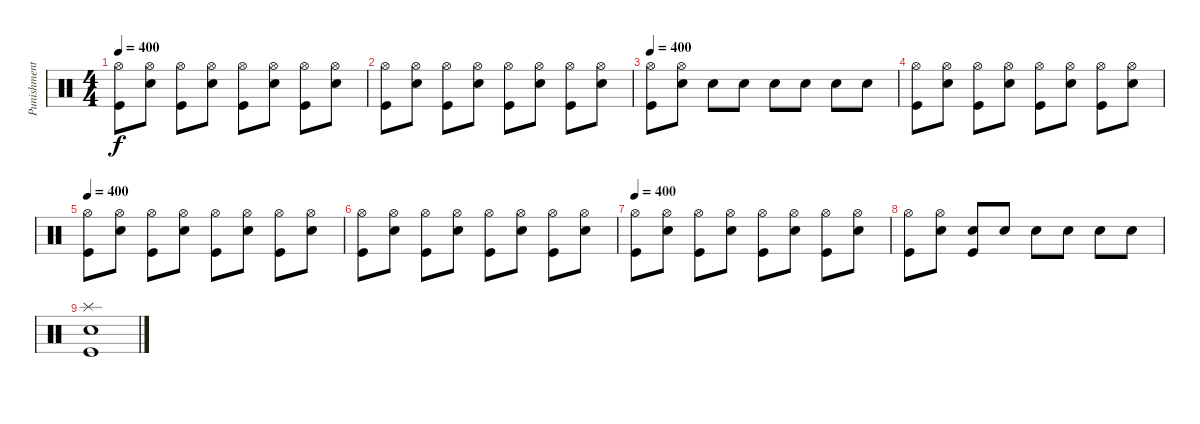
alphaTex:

\track ("Punishment" "Punishment") {instrument percussion}
\staff {score}
\articulation defaults
\ts (4 4)
\tempo 400
\clef neutral
\ks c
("Hi-Hat (open)" "Kick (hit)").8{dy f} ("Hi-Hat (open)" "Electric Snare (hit)").8 ("Hi-Hat (open)" "Kick (hit)").8 ("Hi-Hat (open)" "Electric Snare (hit)").8 ("Hi-Hat (open)" "Kick (hit)").8 ("Hi-Hat (open)" "Electric Snare (hit)").8 ("Hi-Hat (open)" "Kick (hit)").8 ("Hi-Hat (open)" "Electric Snare (hit)").8 |
("Hi-Hat (open)" "Kick (hit)").8 ("Hi-Hat (open)" "Electric Snare (hit)").8 ("Hi-Hat (open)" "Kick (hit)").8 ("Hi-Hat (open)" "Electric Snare (hit)").8 ("Hi-Hat (open)" "Kick (hit)").8 ("Hi-Hat (open)" "Electric Snare (hit)").8 ("Hi-Hat (open)" "Kick (hit)").8 ("Hi-Hat (open)" "Electric Snare (hit)").8 |
\tempo 400
("Hi-Hat (open)" "Kick (hit)").8 ("Hi-Hat (open)" "Electric Snare (hit)").8 "Electric Snare (hit)".8 "Electric Snare (hit)".8 "Electric Snare (hit)".8 "Electric Snare (hit)".8 "Electric Snare (hit)".8 "Electric Snare (hit)".8 |
("Hi-Hat (open)" "Kick (hit)").8 ("Hi-Hat (open)" "Electric Snare (hit)").8 ("Hi-Hat (open)" "Kick (hit)").8 ("Hi-Hat (open)" "Electric Snare (hit)").8 ("Hi-Hat (open)" "Kick (hit)").8 ("Hi-Hat (open)" "Electric Snare (hit)").8 ("Hi-Hat (open)" "Kick (hit)").8 ("Hi-Hat (open)" "Electric Snare (hit)").8 |
\tempo 400
("Hi-Hat (open)" "Kick (hit)").8 ("Hi-Hat (open)" "Electric Snare (hit)").8 ("Hi-Hat (open)" "Kick (hit)").8 ("Hi-Hat (open)" "Electric Snare (hit)").8 ("Hi-Hat (open)" "Kick (hit)").8 ("Hi-Hat (open)" "Electric Snare (hit)").8 ("Hi-Hat (open)" "Kick (hit)").8 ("Hi-Hat (open)" "Electric Snare (hit)").8 |
("Hi-Hat (open)" "Kick (hit)").8 ("Hi-Hat (open)" "Electric Snare (hit)").8 ("Hi-Hat (open)" "Kick (hit)").8 ("Hi-Hat (open)" "Electric Snare (hit)").8 ("Hi-Hat (open)" "Kick (hit)").8 ("Hi-Hat (open)" "Electric Snare (hit)").8 ("Hi-Hat (open)" "Kick (hit)").8 ("Hi-Hat (open)" "Electric Snare (hit)").8 |
\tempo 400
("Hi-Hat (open)" "Kick (hit)").8 ("Hi-Hat (open)" "Electric Snare (hit)").8 ("Hi-Hat (open)" "Kick (hit)").8 ("Hi-Hat (open)" "Electric Snare (hit)").8 ("Hi-Hat (open)" "Kick (hit)").8 ("Hi-Hat (open)" "Electric Snare (hit)").8 ("Hi-Hat (open)" "Kick (hit)").8 ("Hi-Hat (open)" "Electric Snare (hit)").8 |
("Hi-Hat (open)" "Kick (hit)").8 ("Hi-Hat (open)" "Electric Snare (hit)").8 ("Kick (hit)" "Electric Snare (hit)").8 "Electric Snare (hit)".8 "Electric Snare (hit)".8 "Electric Snare (hit)".8 "Electric Snare (hit)".8 "Electric Snare (hit)".8 |
("Electric Snare (hit)" "Kick (hit)" "Splash (hit)").1
